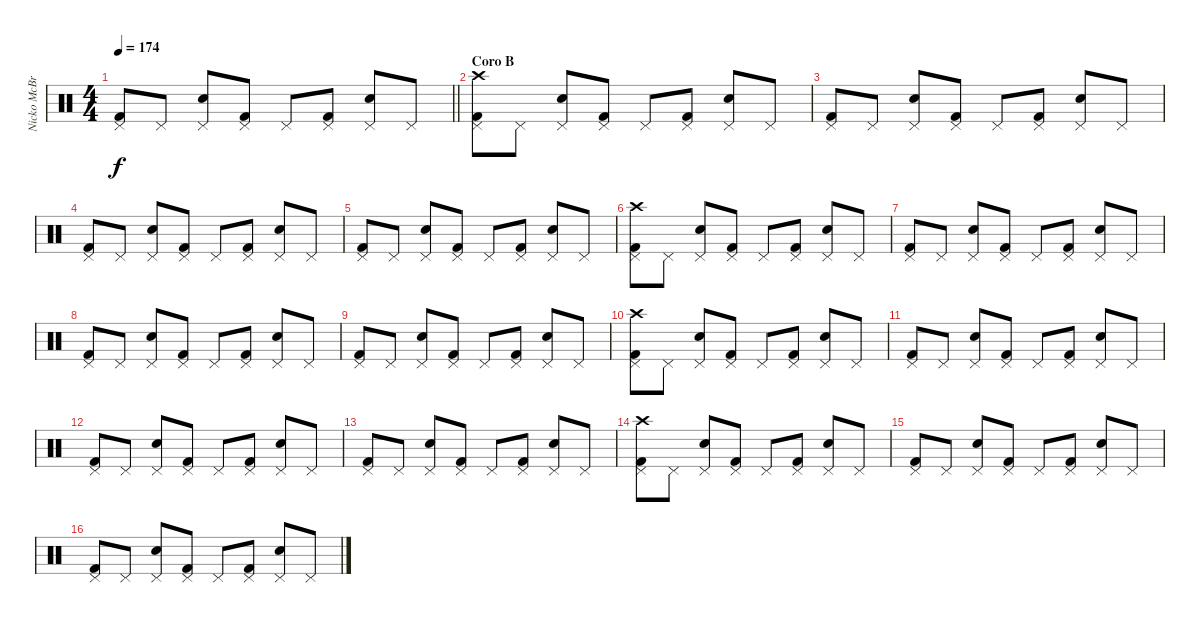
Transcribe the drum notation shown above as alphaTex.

\track ("Nicko McBrain" "Nicko McBr") {instrument percussion}
\staff {score}
\articulation defaults
\ts (4 4)
\tempo 174
\clef neutral
\barLineRight lightlight
\ks c
("Kick (hit) 2" "Pedal Hi-Hat (hit)").8{dy f} "Pedal Hi-Hat (hit)".8 ("Snare (hit) 2" "Pedal Hi-Hat (hit)").8 ("Kick (hit) 2" "Pedal Hi-Hat (hit)").8 "Pedal Hi-Hat (hit)".8 ("Kick (hit) 2" "Pedal Hi-Hat (hit)").8 ("Snare (hit) 2" "Pedal Hi-Hat (hit)").8 "Pedal Hi-Hat (hit)".8 |
\section ("" "Coro B")
("Kick (hit) 2" "Pedal Hi-Hat (hit)" "Crash high (hit)").8 "Pedal Hi-Hat (hit)".8 ("Snare (hit) 2" "Pedal Hi-Hat (hit)").8 ("Kick (hit) 2" "Pedal Hi-Hat (hit)").8 "Pedal Hi-Hat (hit)".8 ("Kick (hit) 2" "Pedal Hi-Hat (hit)").8 ("Snare (hit) 2" "Pedal Hi-Hat (hit)").8 "Pedal Hi-Hat (hit)".8 |
("Kick (hit) 2" "Pedal Hi-Hat (hit)").8 "Pedal Hi-Hat (hit)".8 ("Snare (hit) 2" "Pedal Hi-Hat (hit)").8 ("Kick (hit) 2" "Pedal Hi-Hat (hit)").8 "Pedal Hi-Hat (hit)".8 ("Kick (hit) 2" "Pedal Hi-Hat (hit)").8 ("Snare (hit) 2" "Pedal Hi-Hat (hit)").8 "Pedal Hi-Hat (hit)".8 |
("Kick (hit) 2" "Pedal Hi-Hat (hit)").8 "Pedal Hi-Hat (hit)".8 ("Snare (hit) 2" "Pedal Hi-Hat (hit)").8 ("Kick (hit) 2" "Pedal Hi-Hat (hit)").8 "Pedal Hi-Hat (hit)".8 ("Kick (hit) 2" "Pedal Hi-Hat (hit)").8 ("Snare (hit) 2" "Pedal Hi-Hat (hit)").8 "Pedal Hi-Hat (hit)".8 |
("Kick (hit) 2" "Pedal Hi-Hat (hit)").8 "Pedal Hi-Hat (hit)".8 ("Snare (hit) 2" "Pedal Hi-Hat (hit)").8 ("Kick (hit) 2" "Pedal Hi-Hat (hit)").8 "Pedal Hi-Hat (hit)".8 ("Kick (hit) 2" "Pedal Hi-Hat (hit)").8 ("Snare (hit) 2" "Pedal Hi-Hat (hit)").8 "Pedal Hi-Hat (hit)".8 |
("Kick (hit) 2" "Pedal Hi-Hat (hit)" "Crash high (hit)").8 "Pedal Hi-Hat (hit)".8 ("Snare (hit) 2" "Pedal Hi-Hat (hit)").8 ("Kick (hit) 2" "Pedal Hi-Hat (hit)").8 "Pedal Hi-Hat (hit)".8 ("Kick (hit) 2" "Pedal Hi-Hat (hit)").8 ("Snare (hit) 2" "Pedal Hi-Hat (hit)").8 "Pedal Hi-Hat (hit)".8 |
("Kick (hit) 2" "Pedal Hi-Hat (hit)").8 "Pedal Hi-Hat (hit)".8 ("Snare (hit) 2" "Pedal Hi-Hat (hit)").8 ("Kick (hit) 2" "Pedal Hi-Hat (hit)").8 "Pedal Hi-Hat (hit)".8 ("Kick (hit) 2" "Pedal Hi-Hat (hit)").8 ("Snare (hit) 2" "Pedal Hi-Hat (hit)").8 "Pedal Hi-Hat (hit)".8 |
("Kick (hit) 2" "Pedal Hi-Hat (hit)").8 "Pedal Hi-Hat (hit)".8 ("Snare (hit) 2" "Pedal Hi-Hat (hit)").8 ("Kick (hit) 2" "Pedal Hi-Hat (hit)").8 "Pedal Hi-Hat (hit)".8 ("Kick (hit) 2" "Pedal Hi-Hat (hit)").8 ("Snare (hit) 2" "Pedal Hi-Hat (hit)").8 "Pedal Hi-Hat (hit)".8 |
("Kick (hit) 2" "Pedal Hi-Hat (hit)").8 "Pedal Hi-Hat (hit)".8 ("Snare (hit) 2" "Pedal Hi-Hat (hit)").8 ("Kick (hit) 2" "Pedal Hi-Hat (hit)").8 "Pedal Hi-Hat (hit)".8 ("Kick (hit) 2" "Pedal Hi-Hat (hit)").8 ("Snare (hit) 2" "Pedal Hi-Hat (hit)").8 "Pedal Hi-Hat (hit)".8 |
("Kick (hit) 2" "Pedal Hi-Hat (hit)" "Crash high (hit)").8 "Pedal Hi-Hat (hit)".8 ("Snare (hit) 2" "Pedal Hi-Hat (hit)").8 ("Kick (hit) 2" "Pedal Hi-Hat (hit)").8 "Pedal Hi-Hat (hit)".8 ("Kick (hit) 2" "Pedal Hi-Hat (hit)").8 ("Snare (hit) 2" "Pedal Hi-Hat (hit)").8 "Pedal Hi-Hat (hit)".8 |
("Kick (hit) 2" "Pedal Hi-Hat (hit)").8 "Pedal Hi-Hat (hit)".8 ("Snare (hit) 2" "Pedal Hi-Hat (hit)").8 ("Kick (hit) 2" "Pedal Hi-Hat (hit)").8 "Pedal Hi-Hat (hit)".8 ("Kick (hit) 2" "Pedal Hi-Hat (hit)").8 ("Snare (hit) 2" "Pedal Hi-Hat (hit)").8 "Pedal Hi-Hat (hit)".8 |
("Kick (hit) 2" "Pedal Hi-Hat (hit)").8 "Pedal Hi-Hat (hit)".8 ("Snare (hit) 2" "Pedal Hi-Hat (hit)").8 ("Kick (hit) 2" "Pedal Hi-Hat (hit)").8 "Pedal Hi-Hat (hit)".8 ("Kick (hit) 2" "Pedal Hi-Hat (hit)").8 ("Snare (hit) 2" "Pedal Hi-Hat (hit)").8 "Pedal Hi-Hat (hit)".8 |
("Kick (hit) 2" "Pedal Hi-Hat (hit)").8 "Pedal Hi-Hat (hit)".8 ("Snare (hit) 2" "Pedal Hi-Hat (hit)").8 ("Kick (hit) 2" "Pedal Hi-Hat (hit)").8 "Pedal Hi-Hat (hit)".8 ("Kick (hit) 2" "Pedal Hi-Hat (hit)").8 ("Snare (hit) 2" "Pedal Hi-Hat (hit)").8 "Pedal Hi-Hat (hit)".8 |
("Kick (hit) 2" "Pedal Hi-Hat (hit)" "Crash high (hit)").8 "Pedal Hi-Hat (hit)".8 ("Snare (hit) 2" "Pedal Hi-Hat (hit)").8 ("Kick (hit) 2" "Pedal Hi-Hat (hit)").8 "Pedal Hi-Hat (hit)".8 ("Kick (hit) 2" "Pedal Hi-Hat (hit)").8 ("Snare (hit) 2" "Pedal Hi-Hat (hit)").8 "Pedal Hi-Hat (hit)".8 |
("Kick (hit) 2" "Pedal Hi-Hat (hit)").8 "Pedal Hi-Hat (hit)".8 ("Snare (hit) 2" "Pedal Hi-Hat (hit)").8 ("Kick (hit) 2" "Pedal Hi-Hat (hit)").8 "Pedal Hi-Hat (hit)".8 ("Kick (hit) 2" "Pedal Hi-Hat (hit)").8 ("Snare (hit) 2" "Pedal Hi-Hat (hit)").8 "Pedal Hi-Hat (hit)".8 |
("Kick (hit) 2" "Pedal Hi-Hat (hit)").8 "Pedal Hi-Hat (hit)".8 ("Snare (hit) 2" "Pedal Hi-Hat (hit)").8 ("Kick (hit) 2" "Pedal Hi-Hat (hit)").8 "Pedal Hi-Hat (hit)".8 ("Kick (hit) 2" "Pedal Hi-Hat (hit)").8 ("Snare (hit) 2" "Pedal Hi-Hat (hit)").8 "Pedal Hi-Hat (hit)".8
